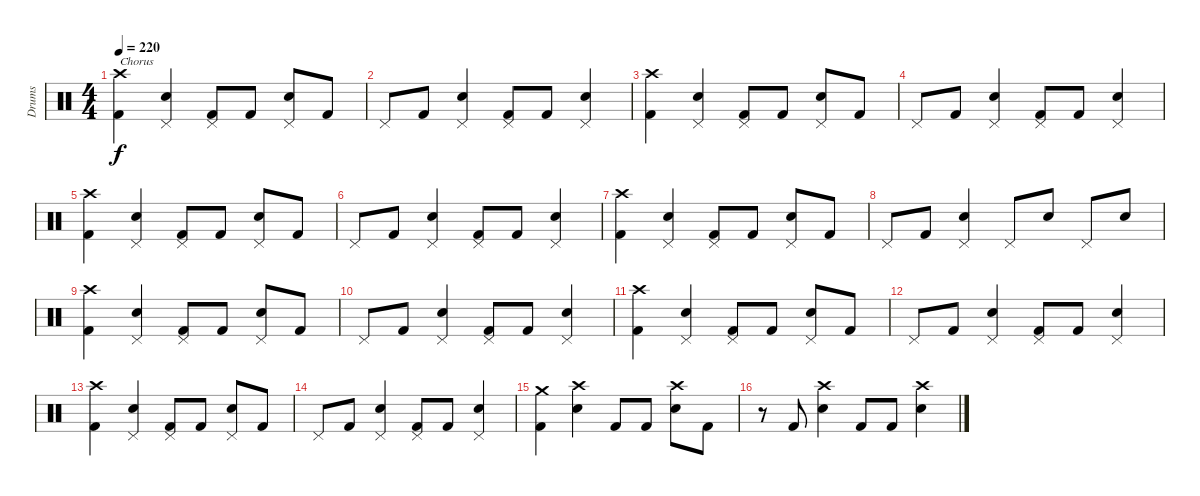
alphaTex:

\track ("Drums" "Drums") {instrument percussion}
\staff {score}
\articulation defaults
\ts (4 4)
\tempo 220
\clef neutral
\ks c
("Crash high (hit)" "Kick (hit) 2").4{txt "Chorus" dy f} ("Pedal Hi-Hat (hit)" "Snare (hit) 2").4 ("Pedal Hi-Hat (hit)" "Kick (hit) 2").8 "Kick (hit) 2".8 ("Pedal Hi-Hat (hit)" "Snare (hit) 2").8 "Kick (hit) 2".8 |
"Pedal Hi-Hat (hit)".8 "Kick (hit) 2".8 ("Pedal Hi-Hat (hit)" "Snare (hit) 2").4 ("Pedal Hi-Hat (hit)" "Kick (hit) 2").8 "Kick (hit) 2".8 ("Pedal Hi-Hat (hit)" "Snare (hit) 2").4 |
("Crash high (hit)" "Kick (hit) 2").4 ("Pedal Hi-Hat (hit)" "Snare (hit) 2").4 ("Pedal Hi-Hat (hit)" "Kick (hit) 2").8 "Kick (hit) 2".8 ("Pedal Hi-Hat (hit)" "Snare (hit) 2").8 "Kick (hit) 2".8 |
"Pedal Hi-Hat (hit)".8 "Kick (hit) 2".8 ("Pedal Hi-Hat (hit)" "Snare (hit) 2").4 ("Pedal Hi-Hat (hit)" "Kick (hit) 2").8 "Kick (hit) 2".8 ("Pedal Hi-Hat (hit)" "Snare (hit) 2").4 |
("Crash high (hit)" "Kick (hit) 2").4 ("Pedal Hi-Hat (hit)" "Snare (hit) 2").4 ("Pedal Hi-Hat (hit)" "Kick (hit) 2").8 "Kick (hit) 2".8 ("Pedal Hi-Hat (hit)" "Snare (hit) 2").8 "Kick (hit) 2".8 |
"Pedal Hi-Hat (hit)".8 "Kick (hit) 2".8 ("Pedal Hi-Hat (hit)" "Snare (hit) 2").4 ("Pedal Hi-Hat (hit)" "Kick (hit) 2").8 "Kick (hit) 2".8 ("Pedal Hi-Hat (hit)" "Snare (hit) 2").4 |
("Crash high (hit)" "Kick (hit) 2").4 ("Pedal Hi-Hat (hit)" "Snare (hit) 2").4 ("Pedal Hi-Hat (hit)" "Kick (hit) 2").8 "Kick (hit) 2".8 ("Pedal Hi-Hat (hit)" "Snare (hit) 2").8 "Kick (hit) 2".8 |
"Pedal Hi-Hat (hit)".8 "Kick (hit) 2".8 ("Pedal Hi-Hat (hit)" "Snare (hit) 2").4 "Pedal Hi-Hat (hit)".8 "Snare (hit) 2".8 "Pedal Hi-Hat (hit)".8 "Snare (hit) 2".8 |
("Crash high (hit)" "Kick (hit) 2").4 ("Pedal Hi-Hat (hit)" "Snare (hit) 2").4 ("Pedal Hi-Hat (hit)" "Kick (hit) 2").8 "Kick (hit) 2".8 ("Pedal Hi-Hat (hit)" "Snare (hit) 2").8 "Kick (hit) 2".8 |
"Pedal Hi-Hat (hit)".8 "Kick (hit) 2".8 ("Pedal Hi-Hat (hit)" "Snare (hit) 2").4 ("Pedal Hi-Hat (hit)" "Kick (hit) 2").8 "Kick (hit) 2".8 ("Pedal Hi-Hat (hit)" "Snare (hit) 2").4 |
("Crash high (hit)" "Kick (hit) 2").4 ("Pedal Hi-Hat (hit)" "Snare (hit) 2").4 ("Pedal Hi-Hat (hit)" "Kick (hit) 2").8 "Kick (hit) 2".8 ("Pedal Hi-Hat (hit)" "Snare (hit) 2").8 "Kick (hit) 2".8 |
"Pedal Hi-Hat (hit)".8 "Kick (hit) 2".8 ("Pedal Hi-Hat (hit)" "Snare (hit) 2").4 ("Pedal Hi-Hat (hit)" "Kick (hit) 2").8 "Kick (hit) 2".8 ("Pedal Hi-Hat (hit)" "Snare (hit) 2").4 |
("Crash high (hit)" "Kick (hit) 2").4 ("Pedal Hi-Hat (hit)" "Snare (hit) 2").4 ("Pedal Hi-Hat (hit)" "Kick (hit) 2").8 "Kick (hit) 2".8 ("Pedal Hi-Hat (hit)" "Snare (hit) 2").8 "Kick (hit) 2".8 |
"Pedal Hi-Hat (hit)".8 "Kick (hit) 2".8 ("Pedal Hi-Hat (hit)" "Snare (hit) 2").4 ("Pedal Hi-Hat (hit)" "Kick (hit) 2").8 "Kick (hit) 2".8 ("Pedal Hi-Hat (hit)" "Snare (hit) 2").4 |
("Crash medium (hit)" "Kick (hit) 2").4 ("Crash high (hit)" "Snare (hit) 2").4 "Kick (hit) 2".8 "Kick (hit) 2".8 ("Crash high (hit)" "Snare (hit) 2").8 "Kick (hit) 2".8 |
r.8 "Kick (hit) 2".8 ("Crash high (hit)" "Snare (hit) 2").4 "Kick (hit) 2".8 "Kick (hit) 2".8 ("Crash high (hit)" "Snare (hit) 2").4
